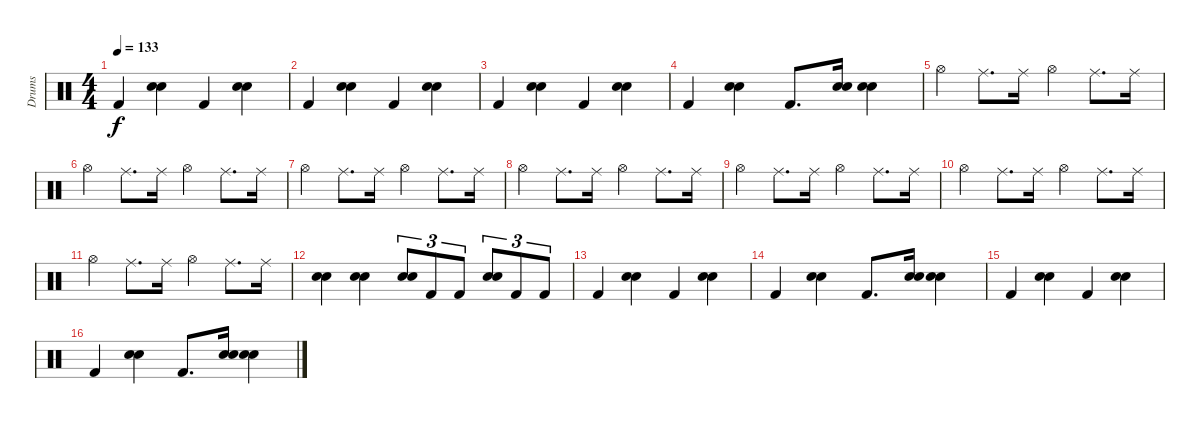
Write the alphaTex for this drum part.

\track ("Drums" "Drums") {instrument percussion}
\staff {score}
\articulation defaults
\ts (4 4)
\tempo 133
\clef neutral
\ks c "Kick (hit) 2".4{dy f}
("Electric Snare (hit)" "Hand Clap (hit)").4 "Kick (hit) 2".4 ("Electric Snare (hit)" "Hand Clap (hit)").4 |
"Kick (hit) 2".4 ("Electric Snare (hit)" "Hand Clap (hit)").4 "Kick (hit) 2".4 ("Electric Snare (hit)" "Hand Clap (hit)").4 |
"Kick (hit) 2".4 ("Electric Snare (hit)" "Hand Clap (hit)").4 "Kick (hit) 2".4 ("Electric Snare (hit)" "Hand Clap (hit)").4 |
"Kick (hit) 2".4 ("Electric Snare (hit)" "Hand Clap (hit)").4 "Kick (hit) 2".8{d} ("Electric Snare (hit)" "Hand Clap (hit)").16 ("Electric Snare (hit)" "Hand Clap (hit)").4 |
"Hi-Hat (open)".4 "Ride (middle)".8{d} "Ride (middle)".16 "Hi-Hat (open)".4 "Ride (middle)".8{d} "Ride (middle)".16 |
"Hi-Hat (open)".4 "Ride (middle)".8{d} "Ride (middle)".16 "Hi-Hat (open)".4 "Ride (middle)".8{d} "Ride (middle)".16 |
"Hi-Hat (open)".4 "Ride (middle)".8{d} "Ride (middle)".16 "Hi-Hat (open)".4 "Ride (middle)".8{d} "Ride (middle)".16 |
"Hi-Hat (open)".4 "Ride (middle)".8{d} "Ride (middle)".16 "Hi-Hat (open)".4 "Ride (middle)".8{d} "Ride (middle)".16 |
"Hi-Hat (open)".4 "Ride (middle)".8{d} "Ride (middle)".16 "Hi-Hat (open)".4 "Ride (middle)".8{d} "Ride (middle)".16 |
"Hi-Hat (open)".4 "Ride (middle)".8{d} "Ride (middle)".16 "Hi-Hat (open)".4 "Ride (middle)".8{d} "Ride (middle)".16 |
"Hi-Hat (open)".4 "Ride (middle)".8{d} "Ride (middle)".16 "Hi-Hat (open)".4 "Ride (middle)".8{d} "Ride (middle)".16 |
("Hand Clap (hit)" "Electric Snare (hit)").4 ("Hand Clap (hit)" "Electric Snare (hit)").4 ("Hand Clap (hit)" "Electric Snare (hit)").8{tu (3 2)} "Kick (hit) 2".8{tu (3 2)} "Kick (hit) 2".8{tu (3 2)} ("Hand Clap (hit)" "Electric Snare (hit)").8{tu (3 2)} "Kick (hit) 2".8{tu (3 2)} "Kick (hit) 2".8{tu (3 2)} |
"Kick (hit) 2".4 ("Electric Snare (hit)" "Hand Clap (hit)").4 "Kick (hit) 2".4 ("Electric Snare (hit)" "Hand Clap (hit)").4 |
"Kick (hit) 2".4 ("Electric Snare (hit)" "Hand Clap (hit)").4 "Kick (hit) 2".8{d} ("Electric Snare (hit)" "Hand Clap (hit)").16 ("Electric Snare (hit)" "Hand Clap (hit)").4 |
"Kick (hit) 2".4 ("Electric Snare (hit)" "Hand Clap (hit)").4 "Kick (hit) 2".4 ("Electric Snare (hit)" "Hand Clap (hit)").4 |
"Kick (hit) 2".4 ("Electric Snare (hit)" "Hand Clap (hit)").4 "Kick (hit) 2".8{d} ("Electric Snare (hit)" "Hand Clap (hit)").16 ("Electric Snare (hit)" "Hand Clap (hit)").4
